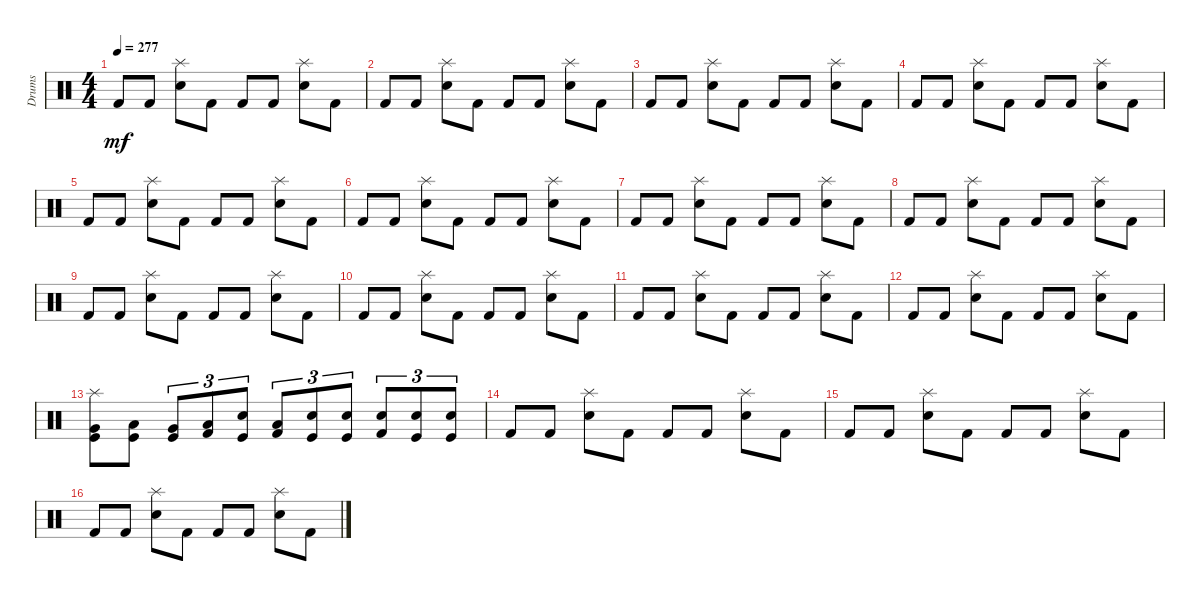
\track ("Drums" "Drums") {instrument percussion}
\staff {score}
\articulation defaults
\ts (4 4)
\tempo 277
\clef neutral
\ks c "Kick (hit) 2".8{dy mf} "Kick (hit) 2".8
("Electric Snare (hit)" "Splash (hit)").8 "Kick (hit) 2".8 "Kick (hit) 2".8 "Kick (hit) 2".8 ("Electric Snare (hit)" "Splash (hit)").8 "Kick (hit) 2".8 |
"Kick (hit) 2".8 "Kick (hit) 2".8 ("Splash (hit)" "Electric Snare (hit)").8 "Kick (hit) 2".8 "Kick (hit) 2".8 "Kick (hit) 2".8 ("Electric Snare (hit)" "Splash (hit)").8 "Kick (hit) 2".8 |
"Kick (hit) 2".8 "Kick (hit) 2".8 ("Splash (hit)" "Electric Snare (hit)").8 "Kick (hit) 2".8 "Kick (hit) 2".8 "Kick (hit) 2".8 ("Electric Snare (hit)" "Splash (hit)").8 "Kick (hit) 2".8 |
"Kick (hit) 2".8 "Kick (hit) 2".8 ("Splash (hit)" "Electric Snare (hit)").8 "Kick (hit) 2".8 "Kick (hit) 2".8 "Kick (hit) 2".8 ("Electric Snare (hit)" "Splash (hit)").8 "Kick (hit) 2".8 |
"Kick (hit) 2".8 "Kick (hit) 2".8 ("Splash (hit)" "Electric Snare (hit)").8 "Kick (hit) 2".8 "Kick (hit) 2".8 "Kick (hit) 2".8 ("Electric Snare (hit)" "Splash (hit)").8 "Kick (hit) 2".8 |
"Kick (hit) 2".8 "Kick (hit) 2".8 ("Splash (hit)" "Electric Snare (hit)").8 "Kick (hit) 2".8 "Kick (hit) 2".8 "Kick (hit) 2".8 ("Splash (hit)" "Electric Snare (hit)").8 "Kick (hit) 2".8 |
"Kick (hit) 2".8 "Kick (hit) 2".8 ("Electric Snare (hit)" "Splash (hit)").8 "Kick (hit) 2".8 "Kick (hit) 2".8 "Kick (hit) 2".8 ("Electric Snare (hit)" "Splash (hit)").8 "Kick (hit) 2".8 |
"Kick (hit) 2".8 "Kick (hit) 2".8 ("Electric Snare (hit)" "Splash (hit)").8 "Kick (hit) 2".8 "Kick (hit) 2".8 "Kick (hit) 2".8 ("Splash (hit)" "Electric Snare (hit)").8 "Kick (hit) 2".8 |
"Kick (hit) 2".8 "Kick (hit) 2".8 ("Electric Snare (hit)" "Splash (hit)").8 "Kick (hit) 2".8 "Kick (hit) 2".8 "Kick (hit) 2".8 ("Splash (hit)" "Electric Snare (hit)").8 "Kick (hit) 2".8 |
"Kick (hit) 2".8 "Kick (hit) 2".8 ("Splash (hit)" "Electric Snare (hit)").8 "Kick (hit) 2".8 "Kick (hit) 2".8 "Kick (hit) 2".8 ("Electric Snare (hit)" "Splash (hit)").8 "Kick (hit) 2".8 |
"Kick (hit) 2".8 "Kick (hit) 2".8 ("Electric Snare (hit)" "Splash (hit)").8 "Kick (hit) 2".8 "Kick (hit) 2".8 "Kick (hit) 2".8 ("Splash (hit)" "Electric Snare (hit)").8 "Kick (hit) 2".8 |
"Kick (hit) 2".8 "Kick (hit) 2".8 ("Splash (hit)" "Electric Snare (hit)").8 "Kick (hit) 2".8 "Kick (hit) 2".8 "Kick (hit) 2".8 ("Electric Snare (hit)" "Splash (hit)").8 "Kick (hit) 2".8 |
("Very Low Tom (hit)" "Splash (hit)" "Kick (hit)").8 ("Kick (hit)" "Low Floor Tom (hit)").8 ("Kick (hit)" "Very Low Tom (hit)").8{tu (3 2)} ("Low Floor Tom (hit)" "Kick (hit) 2").8{tu (3 2)} ("Electric Snare (hit)" "Kick (hit)").8{tu (3 2)} ("Kick (hit) 2" "Low Floor Tom (hit)").8{tu (3 2)} ("Electric Snare (hit)" "Kick (hit)").8{tu (3 2)} ("Kick (hit)" "Snare (hit) 2").8{tu (3 2)} ("Electric Snare (hit)" "Kick (hit) 2").8{tu (3 2)} ("Snare (hit) 2" "Kick (hit)").8{tu (3 2)} ("Kick (hit)" "Electric Snare (hit)").8{tu (3 2)} |
"Kick (hit) 2".8 "Kick (hit) 2".8 ("Splash (hit)" "Electric Snare (hit)").8 "Kick (hit) 2".8 "Kick (hit) 2".8 "Kick (hit) 2".8 ("Splash (hit)" "Electric Snare (hit)").8 "Kick (hit) 2".8 |
"Kick (hit) 2".8 "Kick (hit) 2".8 ("Electric Snare (hit)" "Splash (hit)").8 "Kick (hit) 2".8 "Kick (hit) 2".8 "Kick (hit) 2".8 ("Electric Snare (hit)" "Splash (hit)").8 "Kick (hit) 2".8 |
"Kick (hit) 2".8 "Kick (hit) 2".8 ("Electric Snare (hit)" "Splash (hit)").8 "Kick (hit) 2".8 "Kick (hit) 2".8 "Kick (hit) 2".8 ("Splash (hit)" "Electric Snare (hit)").8 "Kick (hit) 2".8
